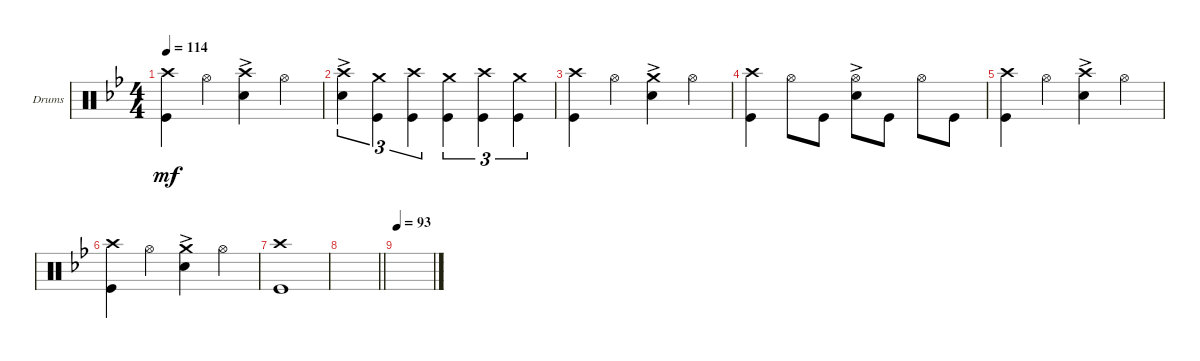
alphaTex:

\bracketExtendMode groupsimilarinstruments
\firstSystemTrackNameOrientation horizontal
\otherSystemsTrackNameOrientation horizontal
\track ("Drumkit" "Drums") {instrument percussion}
\staff {score}
\articulation defaults
\ts (4 4)
\tempo 114
\clef neutral
\ks gminor
("Kick (hit)" "Crash high (hit)").4{dy mf} "Hi-Hat (open)".4 ("Snare (hit) 2"{ac} "Crash high (hit)").4 "Hi-Hat (open)".4 |
("Crash high (hit)" "Snare (hit) 2"{ac}).4{tu (3 2)} ("Kick (hit)" "Crash medium (hit)").4{tu (3 2)} ("Kick (hit)" "Crash high (hit)").4{tu (3 2)} ("Kick (hit)" "Crash medium (hit)").4{tu (3 2)} ("Kick (hit)" "Crash high (hit)").4{tu (3 2)} ("Kick (hit)" "Crash medium (hit)").4{tu (3 2)} |
("Kick (hit)" "Crash high (hit)").4 "Hi-Hat (open)".4 ("Snare (hit) 2"{ac} "Crash medium (hit)").4 "Hi-Hat (open)".4 |
("Kick (hit)" "Crash high (hit)").4 "Hi-Hat (open)".8 "Kick (hit)".8 ("Snare (hit) 2"{ac} "Hi-Hat (open)").8 "Kick (hit)".8 "Hi-Hat (open)".8 "Kick (hit)".8 |
("Kick (hit)" "Crash high (hit)").4 "Hi-Hat (open)".4 ("Snare (hit) 2"{ac} "Crash high (hit)").4 "Hi-Hat (open)".4 |
("Kick (hit)" "Crash high (hit)").4 "Hi-Hat (open)".4 ("Snare (hit) 2"{ac} "Crash medium (hit)").4 "Hi-Hat (open)".4 |
("Kick (hit)" "Crash high (hit)").1 |
\barLineRight lightlight
|
\tempo 93
